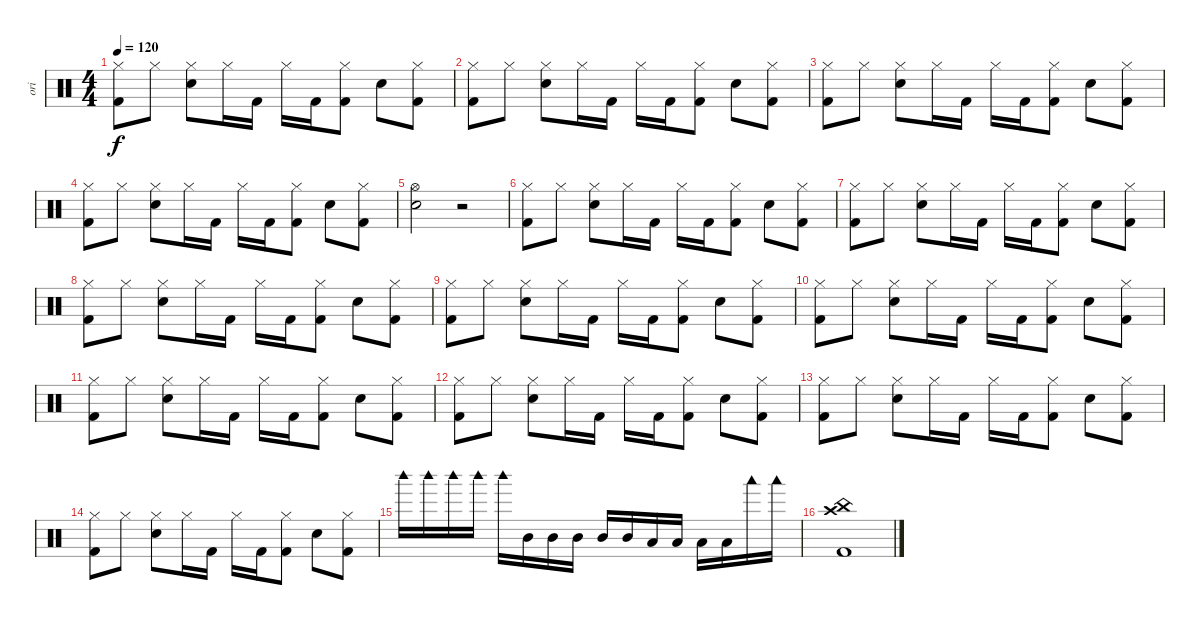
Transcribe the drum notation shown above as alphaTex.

\track ("ori" "ori") {instrument percussion}
\staff {score}
\articulation defaults
\ts (4 4)
\tempo 120
\clef neutral
\ks c
("Kick (hit) 2" "Hi-Hat (closed)").8{dy f} "Hi-Hat (closed)".8 ("Electric Snare (hit)" "Hi-Hat (closed)").8 "Hi-Hat (closed)".16 "Kick (hit) 2".16 "Hi-Hat (closed)".16 "Kick (hit) 2".16 ("Kick (hit) 2" "Hi-Hat (closed)").8 "Electric Snare (hit)".8 ("Kick (hit) 2" "Hi-Hat (closed)").8 |
("Kick (hit) 2" "Hi-Hat (closed)").8 "Hi-Hat (closed)".8 ("Electric Snare (hit)" "Hi-Hat (closed)").8 "Hi-Hat (closed)".16 "Kick (hit) 2".16 "Hi-Hat (closed)".16 "Kick (hit) 2".16 ("Kick (hit) 2" "Hi-Hat (closed)").8 "Electric Snare (hit)".8 ("Kick (hit) 2" "Hi-Hat (closed)").8 |
("Kick (hit) 2" "Hi-Hat (closed)").8 "Hi-Hat (closed)".8 ("Electric Snare (hit)" "Hi-Hat (closed)").8 "Hi-Hat (closed)".16 "Kick (hit) 2".16 "Hi-Hat (closed)".16 "Kick (hit) 2".16 ("Kick (hit) 2" "Hi-Hat (closed)").8 "Electric Snare (hit)".8 ("Kick (hit) 2" "Hi-Hat (closed)").8 |
("Kick (hit) 2" "Hi-Hat (closed)").8 "Hi-Hat (closed)".8 ("Electric Snare (hit)" "Hi-Hat (closed)").8 "Hi-Hat (closed)".16 "Kick (hit) 2".16 "Hi-Hat (closed)".16 "Kick (hit) 2".16 ("Kick (hit) 2" "Hi-Hat (closed)").8 "Electric Snare (hit)".8 ("Kick (hit) 2" "Hi-Hat (closed)").8 |
("Hi-Hat (open)" "Electric Snare (hit)").2 r.2 |
("Kick (hit) 2" "Hi-Hat (closed)").8 "Hi-Hat (closed)".8 ("Electric Snare (hit)" "Hi-Hat (closed)").8 "Hi-Hat (closed)".16 "Kick (hit) 2".16 "Hi-Hat (closed)".16 "Kick (hit) 2".16 ("Kick (hit) 2" "Hi-Hat (closed)").8 "Electric Snare (hit)".8 ("Kick (hit) 2" "Hi-Hat (closed)").8 |
("Kick (hit) 2" "Hi-Hat (closed)").8 "Hi-Hat (closed)".8 ("Electric Snare (hit)" "Hi-Hat (closed)").8 "Hi-Hat (closed)".16 "Kick (hit) 2".16 "Hi-Hat (closed)".16 "Kick (hit) 2".16 ("Kick (hit) 2" "Hi-Hat (closed)").8 "Electric Snare (hit)".8 ("Kick (hit) 2" "Hi-Hat (closed)").8 |
("Kick (hit) 2" "Hi-Hat (closed)").8 "Hi-Hat (closed)".8 ("Electric Snare (hit)" "Hi-Hat (closed)").8 "Hi-Hat (closed)".16 "Kick (hit) 2".16 "Hi-Hat (closed)".16 "Kick (hit) 2".16 ("Kick (hit) 2" "Hi-Hat (closed)").8 "Electric Snare (hit)".8 ("Kick (hit) 2" "Hi-Hat (closed)").8 |
("Kick (hit) 2" "Hi-Hat (closed)").8 "Hi-Hat (closed)".8 ("Electric Snare (hit)" "Hi-Hat (closed)").8 "Hi-Hat (closed)".16 "Kick (hit) 2".16 "Hi-Hat (closed)".16 "Kick (hit) 2".16 ("Kick (hit) 2" "Hi-Hat (closed)").8 "Electric Snare (hit)".8 ("Kick (hit) 2" "Hi-Hat (closed)").8 |
("Kick (hit) 2" "Hi-Hat (closed)").8 "Hi-Hat (closed)".8 ("Electric Snare (hit)" "Hi-Hat (closed)").8 "Hi-Hat (closed)".16 "Kick (hit) 2".16 "Hi-Hat (closed)".16 "Kick (hit) 2".16 ("Kick (hit) 2" "Hi-Hat (closed)").8 "Electric Snare (hit)".8 ("Kick (hit) 2" "Hi-Hat (closed)").8 |
("Kick (hit) 2" "Hi-Hat (closed)").8 "Hi-Hat (closed)".8 ("Electric Snare (hit)" "Hi-Hat (closed)").8 "Hi-Hat (closed)".16 "Kick (hit) 2".16 "Hi-Hat (closed)".16 "Kick (hit) 2".16 ("Kick (hit) 2" "Hi-Hat (closed)").8 "Electric Snare (hit)".8 ("Kick (hit) 2" "Hi-Hat (closed)").8 |
("Kick (hit) 2" "Hi-Hat (closed)").8 "Hi-Hat (closed)".8 ("Electric Snare (hit)" "Hi-Hat (closed)").8 "Hi-Hat (closed)".16 "Kick (hit) 2".16 "Hi-Hat (closed)".16 "Kick (hit) 2".16 ("Kick (hit) 2" "Hi-Hat (closed)").8 "Electric Snare (hit)".8 ("Kick (hit) 2" "Hi-Hat (closed)").8 |
("Kick (hit) 2" "Hi-Hat (closed)").8 "Hi-Hat (closed)".8 ("Electric Snare (hit)" "Hi-Hat (closed)").8 "Hi-Hat (closed)".16 "Kick (hit) 2".16 "Hi-Hat (closed)".16 "Kick (hit) 2".16 ("Kick (hit) 2" "Hi-Hat (closed)").8 "Electric Snare (hit)".8 ("Kick (hit) 2" "Hi-Hat (closed)").8 |
("Kick (hit) 2" "Hi-Hat (closed)").8 "Hi-Hat (closed)".8 ("Electric Snare (hit)" "Hi-Hat (closed)").8 "Hi-Hat (closed)".16 "Kick (hit) 2".16 "Hi-Hat (closed)".16 "Kick (hit) 2".16 ("Kick (hit) 2" "Hi-Hat (closed)").8 "Electric Snare (hit)".8 ("Kick (hit) 2" "Hi-Hat (closed)").8 |
"Woodblock high (hit)".16 "Woodblock high (hit)".16 "Woodblock high (hit)".16 "Woodblock high (hit)".16 "Woodblock high (hit)".16 "Mid Tom (hit)".16 "Mid Tom (hit)".16 "Mid Tom (hit)".16 "Mid Tom (hit)".16 "Mid Tom (hit)".16 "Low Tom (hit)".16 "Low Tom (hit)".16 "Low Tom (hit)".16 "Low Tom (hit)".16 "Woodblock low (hit)".16 "Woodblock low (hit)".16 |
("Kick (hit) 2" "Crash high (hit)" "China (hit)").1
